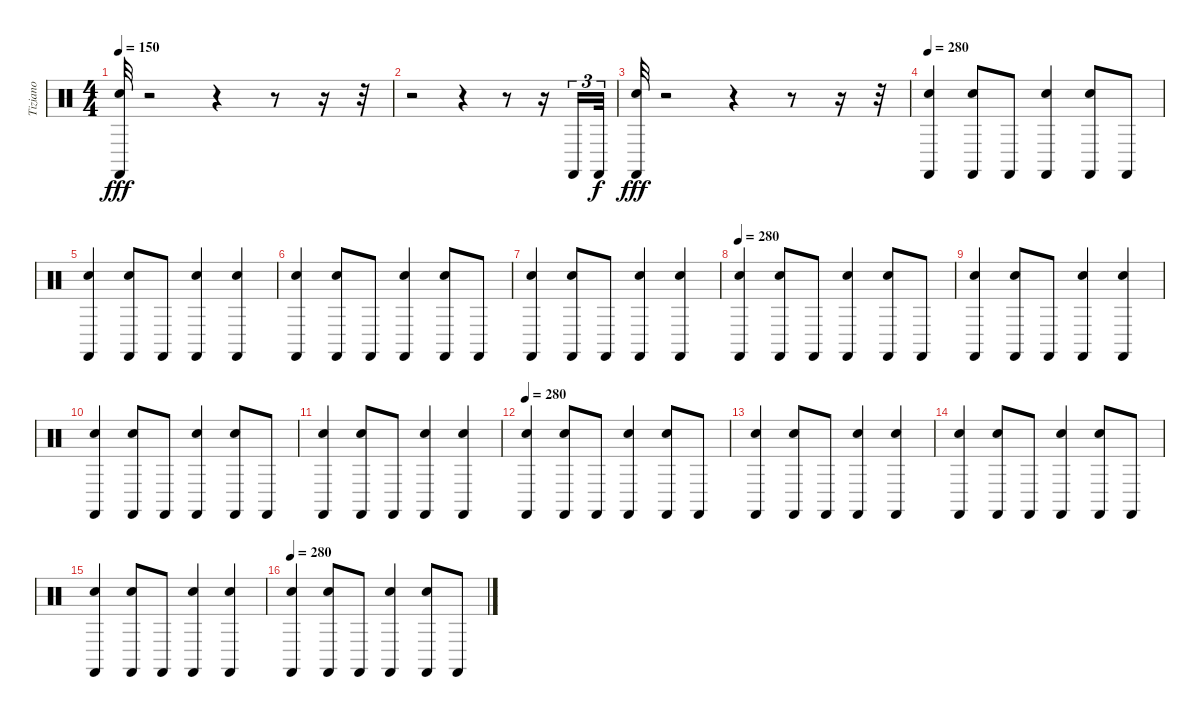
\track ("Tiziano" "Tiziano") {instrument percussion}
\staff {score}
\articulation defaults
\ts (4 4)
\tempo 150
\clef neutral
\ks c
("Hand Clap (hit)" "Castanets (hit)").32{dy fff} r.2 r.4 r.8 r.16 r.32 |
r.2 r.4 r.8 r.16 "Castanets (hit)".16{tu (3 2)} "Castanets (hit)".32{tu (3 2) dy f} |
("Hand Clap (hit)" "Castanets (hit)").32{dy fff} r.2 r.4 r.8 r.16 r.32 |
\tempo 280
("Hand Clap (hit)" "Castanets (hit)").4 ("Hand Clap (hit)" "Castanets (hit)").8 "Castanets (hit)".8 ("Hand Clap (hit)" "Castanets (hit)").4 ("Hand Clap (hit)" "Castanets (hit)").8 "Castanets (hit)".8 |
("Hand Clap (hit)" "Castanets (hit)").4 ("Hand Clap (hit)" "Castanets (hit)").8 "Castanets (hit)".8 ("Hand Clap (hit)" "Castanets (hit)").4 ("Hand Clap (hit)" "Castanets (hit)").4 |
("Hand Clap (hit)" "Castanets (hit)").4 ("Hand Clap (hit)" "Castanets (hit)").8 "Castanets (hit)".8 ("Hand Clap (hit)" "Castanets (hit)").4 ("Hand Clap (hit)" "Castanets (hit)").8 "Castanets (hit)".8 |
("Hand Clap (hit)" "Castanets (hit)").4 ("Hand Clap (hit)" "Castanets (hit)").8 "Castanets (hit)".8 ("Hand Clap (hit)" "Castanets (hit)").4 ("Hand Clap (hit)" "Castanets (hit)").4 |
\tempo 280
("Hand Clap (hit)" "Castanets (hit)").4 ("Hand Clap (hit)" "Castanets (hit)").8 "Castanets (hit)".8 ("Hand Clap (hit)" "Castanets (hit)").4 ("Hand Clap (hit)" "Castanets (hit)").8 "Castanets (hit)".8 |
("Hand Clap (hit)" "Castanets (hit)").4 ("Hand Clap (hit)" "Castanets (hit)").8 "Castanets (hit)".8 ("Hand Clap (hit)" "Castanets (hit)").4 ("Hand Clap (hit)" "Castanets (hit)").4 |
("Hand Clap (hit)" "Castanets (hit)").4 ("Hand Clap (hit)" "Castanets (hit)").8 "Castanets (hit)".8 ("Hand Clap (hit)" "Castanets (hit)").4 ("Hand Clap (hit)" "Castanets (hit)").8 "Castanets (hit)".8 |
("Hand Clap (hit)" "Castanets (hit)").4 ("Hand Clap (hit)" "Castanets (hit)").8 "Castanets (hit)".8 ("Hand Clap (hit)" "Castanets (hit)").4 ("Hand Clap (hit)" "Castanets (hit)").4 |
\tempo 280
("Hand Clap (hit)" "Castanets (hit)").4 ("Hand Clap (hit)" "Castanets (hit)").8 "Castanets (hit)".8 ("Hand Clap (hit)" "Castanets (hit)").4 ("Hand Clap (hit)" "Castanets (hit)").8 "Castanets (hit)".8 |
("Hand Clap (hit)" "Castanets (hit)").4 ("Hand Clap (hit)" "Castanets (hit)").8 "Castanets (hit)".8 ("Hand Clap (hit)" "Castanets (hit)").4 ("Hand Clap (hit)" "Castanets (hit)").4 |
("Hand Clap (hit)" "Castanets (hit)").4 ("Hand Clap (hit)" "Castanets (hit)").8 "Castanets (hit)".8 ("Hand Clap (hit)" "Castanets (hit)").4 ("Hand Clap (hit)" "Castanets (hit)").8 "Castanets (hit)".8 |
("Hand Clap (hit)" "Castanets (hit)").4 ("Hand Clap (hit)" "Castanets (hit)").8 "Castanets (hit)".8 ("Hand Clap (hit)" "Castanets (hit)").4 ("Hand Clap (hit)" "Castanets (hit)").4 |
\tempo 280
("Hand Clap (hit)" "Castanets (hit)").4 ("Hand Clap (hit)" "Castanets (hit)").8 "Castanets (hit)".8 ("Hand Clap (hit)" "Castanets (hit)").4 ("Hand Clap (hit)" "Castanets (hit)").8 "Castanets (hit)".8
